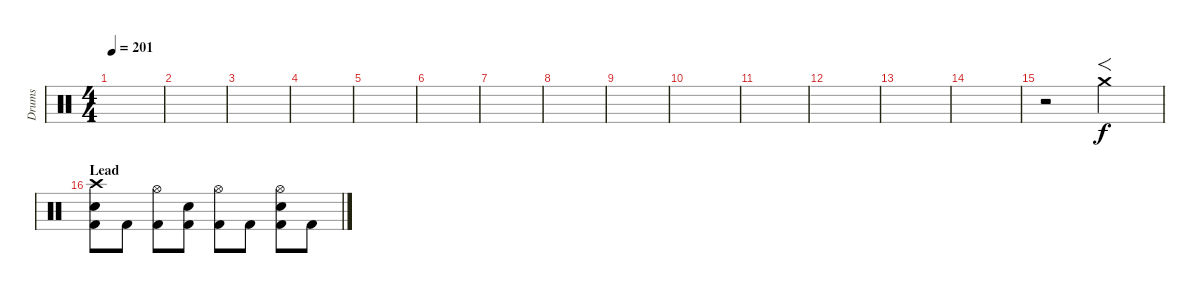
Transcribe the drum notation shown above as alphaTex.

\track ("Drums" "Drums") {instrument percussion}
\staff {score}
\articulation defaults
\ts (4 4)
\tempo 201
\clef neutral
\ks c
|
|
|
|
|
|
|
|
|
|
|
|
|
|
r.2 "Crash medium (hit)".2{f} |
\section ("" "Lead")
("Crash high (hit)" "Snare (hit) 2" "Kick (hit) 2").8 "Kick (hit) 2".8 ("Hi-Hat (open)" "Kick (hit) 2").8 ("Snare (hit) 2" "Kick (hit) 2").8 ("Hi-Hat (open)" "Kick (hit) 2").8 "Kick (hit) 2".8 ("Hi-Hat (open)" "Snare (hit) 2" "Kick (hit) 2").8 "Kick (hit) 2".8
